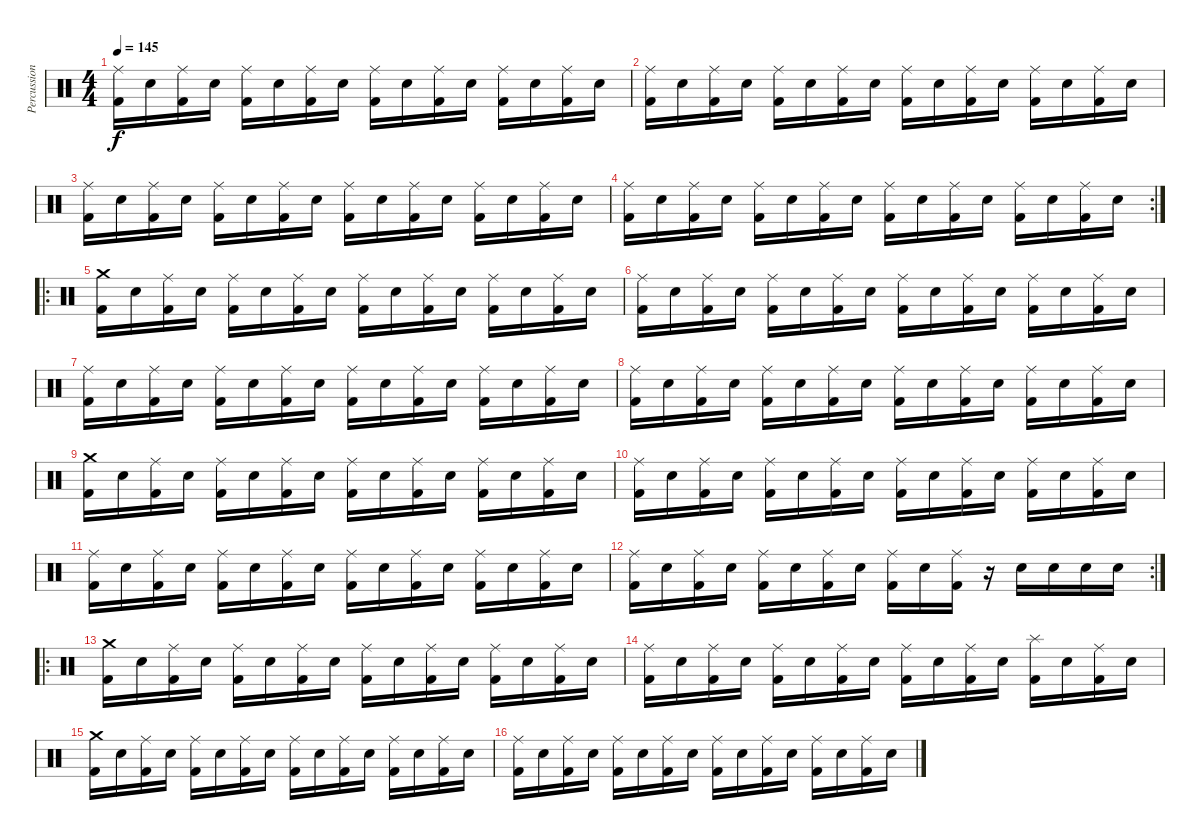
\track ("Percussions" "Percussion") {instrument percussion}
\staff {score}
\articulation defaults
\ts (4 4)
\tempo 145
\clef neutral
\ks c
("Ride (middle)" "Kick (hit) 2").16{dy f} "Snare (hit) 2".16 ("Ride (middle)" "Kick (hit) 2").16 "Snare (hit) 2".16 ("Ride (middle)" "Kick (hit) 2").16 "Snare (hit) 2".16 ("Ride (middle)" "Kick (hit) 2").16 "Snare (hit) 2".16 ("Ride (middle)" "Kick (hit) 2").16 "Snare (hit) 2".16 ("Ride (middle)" "Kick (hit) 2").16 "Snare (hit) 2".16 ("Ride (middle)" "Kick (hit) 2").16 "Snare (hit) 2".16 ("Ride (middle)" "Kick (hit) 2").16 "Snare (hit) 2".16 |
("Ride (middle)" "Kick (hit) 2").16 "Snare (hit) 2".16 ("Ride (middle)" "Kick (hit) 2").16 "Snare (hit) 2".16 ("Ride (middle)" "Kick (hit) 2").16 "Snare (hit) 2".16 ("Ride (middle)" "Kick (hit) 2").16 "Snare (hit) 2".16 ("Ride (middle)" "Kick (hit) 2").16 "Snare (hit) 2".16 ("Ride (middle)" "Kick (hit) 2").16 "Snare (hit) 2".16 ("Ride (middle)" "Kick (hit) 2").16 "Snare (hit) 2".16 ("Ride (middle)" "Kick (hit) 2").16 "Snare (hit) 2".16 |
("Ride (middle)" "Kick (hit) 2").16 "Snare (hit) 2".16 ("Ride (middle)" "Kick (hit) 2").16 "Snare (hit) 2".16 ("Ride (middle)" "Kick (hit) 2").16 "Snare (hit) 2".16 ("Ride (middle)" "Kick (hit) 2").16 "Snare (hit) 2".16 ("Ride (middle)" "Kick (hit) 2").16 "Snare (hit) 2".16 ("Ride (middle)" "Kick (hit) 2").16 "Snare (hit) 2".16 ("Ride (middle)" "Kick (hit) 2").16 "Snare (hit) 2".16 ("Ride (middle)" "Kick (hit) 2").16 "Snare (hit) 2".16 |
\rc 2
("Ride (middle)" "Kick (hit) 2").16 "Snare (hit) 2".16 ("Ride (middle)" "Kick (hit) 2").16 "Snare (hit) 2".16 ("Ride (middle)" "Kick (hit) 2").16 "Snare (hit) 2".16 ("Ride (middle)" "Kick (hit) 2").16 "Snare (hit) 2".16 ("Ride (middle)" "Kick (hit) 2").16 "Snare (hit) 2".16 ("Ride (middle)" "Kick (hit) 2").16 "Snare (hit) 2".16 ("Ride (middle)" "Kick (hit) 2").16 "Snare (hit) 2".16 ("Ride (middle)" "Kick (hit) 2").16 "Snare (hit) 2".16 |
\ro
("Crash medium (hit)" "Kick (hit) 2").16 "Snare (hit) 2".16 ("Ride (middle)" "Kick (hit) 2").16 "Snare (hit) 2".16 ("Ride (middle)" "Kick (hit) 2").16 "Snare (hit) 2".16 ("Ride (middle)" "Kick (hit) 2").16 "Snare (hit) 2".16 ("Ride (middle)" "Kick (hit) 2").16 "Snare (hit) 2".16 ("Ride (middle)" "Kick (hit) 2").16 "Snare (hit) 2".16 ("Ride (middle)" "Kick (hit) 2").16 "Snare (hit) 2".16 ("Ride (middle)" "Kick (hit) 2").16 "Snare (hit) 2".16 |
("Ride (middle)" "Kick (hit) 2").16 "Snare (hit) 2".16 ("Ride (middle)" "Kick (hit) 2").16 "Snare (hit) 2".16 ("Ride (middle)" "Kick (hit) 2").16 "Snare (hit) 2".16 ("Ride (middle)" "Kick (hit) 2").16 "Snare (hit) 2".16 ("Ride (middle)" "Kick (hit) 2").16 "Snare (hit) 2".16 ("Ride (middle)" "Kick (hit) 2").16 "Snare (hit) 2".16 ("Ride (middle)" "Kick (hit) 2").16 "Snare (hit) 2".16 ("Ride (middle)" "Kick (hit) 2").16 "Snare (hit) 2".16 |
("Ride (middle)" "Kick (hit) 2").16 "Snare (hit) 2".16 ("Ride (middle)" "Kick (hit) 2").16 "Snare (hit) 2".16 ("Ride (middle)" "Kick (hit) 2").16 "Snare (hit) 2".16 ("Ride (middle)" "Kick (hit) 2").16 "Snare (hit) 2".16 ("Ride (middle)" "Kick (hit) 2").16 "Snare (hit) 2".16 ("Ride (middle)" "Kick (hit) 2").16 "Snare (hit) 2".16 ("Ride (middle)" "Kick (hit) 2").16 "Snare (hit) 2".16 ("Ride (middle)" "Kick (hit) 2").16 "Snare (hit) 2".16 |
("Ride (middle)" "Kick (hit) 2").16 "Snare (hit) 2".16 ("Ride (middle)" "Kick (hit) 2").16 "Snare (hit) 2".16 ("Ride (middle)" "Kick (hit) 2").16 "Snare (hit) 2".16 ("Ride (middle)" "Kick (hit) 2").16 "Snare (hit) 2".16 ("Ride (middle)" "Kick (hit) 2").16 "Snare (hit) 2".16 ("Ride (middle)" "Kick (hit) 2").16 "Snare (hit) 2".16 ("Ride (middle)" "Kick (hit) 2").16 "Snare (hit) 2".16 ("Ride (middle)" "Kick (hit) 2").16 "Snare (hit) 2".16 |
("Crash medium (hit)" "Kick (hit) 2").16 "Snare (hit) 2".16 ("Ride (middle)" "Kick (hit) 2").16 "Snare (hit) 2".16 ("Ride (middle)" "Kick (hit) 2").16 "Snare (hit) 2".16 ("Ride (middle)" "Kick (hit) 2").16 "Snare (hit) 2".16 ("Ride (middle)" "Kick (hit) 2").16 "Snare (hit) 2".16 ("Ride (middle)" "Kick (hit) 2").16 "Snare (hit) 2".16 ("Ride (middle)" "Kick (hit) 2").16 "Snare (hit) 2".16 ("Ride (middle)" "Kick (hit) 2").16 "Snare (hit) 2".16 |
("Ride (middle)" "Kick (hit) 2").16 "Snare (hit) 2".16 ("Ride (middle)" "Kick (hit) 2").16 "Snare (hit) 2".16 ("Ride (middle)" "Kick (hit) 2").16 "Snare (hit) 2".16 ("Ride (middle)" "Kick (hit) 2").16 "Snare (hit) 2".16 ("Ride (middle)" "Kick (hit) 2").16 "Snare (hit) 2".16 ("Ride (middle)" "Kick (hit) 2").16 "Snare (hit) 2".16 ("Ride (middle)" "Kick (hit) 2").16 "Snare (hit) 2".16 ("Ride (middle)" "Kick (hit) 2").16 "Snare (hit) 2".16 |
("Ride (middle)" "Kick (hit) 2").16 "Snare (hit) 2".16 ("Ride (middle)" "Kick (hit) 2").16 "Snare (hit) 2".16 ("Ride (middle)" "Kick (hit) 2").16 "Snare (hit) 2".16 ("Ride (middle)" "Kick (hit) 2").16 "Snare (hit) 2".16 ("Ride (middle)" "Kick (hit) 2").16 "Snare (hit) 2".16 ("Ride (middle)" "Kick (hit) 2").16 "Snare (hit) 2".16 ("Ride (middle)" "Kick (hit) 2").16 "Snare (hit) 2".16 ("Ride (middle)" "Kick (hit) 2").16 "Snare (hit) 2".16 |
\rc 2
("Ride (middle)" "Kick (hit) 2").16 "Snare (hit) 2".16 ("Ride (middle)" "Kick (hit) 2").16 "Snare (hit) 2".16 ("Ride (middle)" "Kick (hit) 2").16 "Snare (hit) 2".16 ("Ride (middle)" "Kick (hit) 2").16 "Snare (hit) 2".16 ("Ride (middle)" "Kick (hit) 2").16 "Snare (hit) 2".16 ("Ride (middle)" "Kick (hit) 2").16 r.16 "Snare (hit) 2".16 "Snare (hit) 2".16 "Snare (hit) 2".16 "Snare (hit) 2".16 |
\ro
("Crash medium (hit)" "Kick (hit) 2").16 "Snare (hit) 2".16 ("Ride (middle)" "Kick (hit) 2").16 "Snare (hit) 2".16 ("Ride (middle)" "Kick (hit) 2").16 "Snare (hit) 2".16 ("Ride (middle)" "Kick (hit) 2").16 "Snare (hit) 2".16 ("Ride (middle)" "Kick (hit) 2").16 "Snare (hit) 2".16 ("Ride (middle)" "Kick (hit) 2").16 "Snare (hit) 2".16 ("Ride (middle)" "Kick (hit) 2").16 "Snare (hit) 2".16 ("Ride (middle)" "Kick (hit) 2").16 "Snare (hit) 2".16 |
("Ride (middle)" "Kick (hit) 2").16 "Snare (hit) 2".16 ("Ride (middle)" "Kick (hit) 2").16 "Snare (hit) 2".16 ("Ride (middle)" "Kick (hit) 2").16 "Snare (hit) 2".16 ("Ride (middle)" "Kick (hit) 2").16 "Snare (hit) 2".16 ("Ride (middle)" "Kick (hit) 2").16 "Snare (hit) 2".16 ("Ride (middle)" "Kick (hit) 2").16 "Snare (hit) 2".16 ("Splash (hit)" "Kick (hit) 2").16 "Snare (hit) 2".16 ("Ride (middle)" "Kick (hit) 2").16 "Snare (hit) 2".16 |
("Crash medium (hit)" "Kick (hit) 2").16 "Snare (hit) 2".16 ("Ride (middle)" "Kick (hit) 2").16 "Snare (hit) 2".16 ("Ride (middle)" "Kick (hit) 2").16 "Snare (hit) 2".16 ("Ride (middle)" "Kick (hit) 2").16 "Snare (hit) 2".16 ("Ride (middle)" "Kick (hit) 2").16 "Snare (hit) 2".16 ("Ride (middle)" "Kick (hit) 2").16 "Snare (hit) 2".16 ("Ride (middle)" "Kick (hit) 2").16 "Snare (hit) 2".16 ("Ride (middle)" "Kick (hit) 2").16 "Snare (hit) 2".16 |
("Ride (middle)" "Kick (hit) 2").16 "Snare (hit) 2".16 ("Ride (middle)" "Kick (hit) 2").16 "Snare (hit) 2".16 ("Ride (middle)" "Kick (hit) 2").16 "Snare (hit) 2".16 ("Ride (middle)" "Kick (hit) 2").16 "Snare (hit) 2".16 ("Ride (middle)" "Kick (hit) 2").16 "Snare (hit) 2".16 ("Ride (middle)" "Kick (hit) 2").16 "Snare (hit) 2".16 ("Ride (middle)" "Kick (hit) 2").16 "Snare (hit) 2".16 ("Ride (middle)" "Kick (hit) 2").16 "Snare (hit) 2".16
